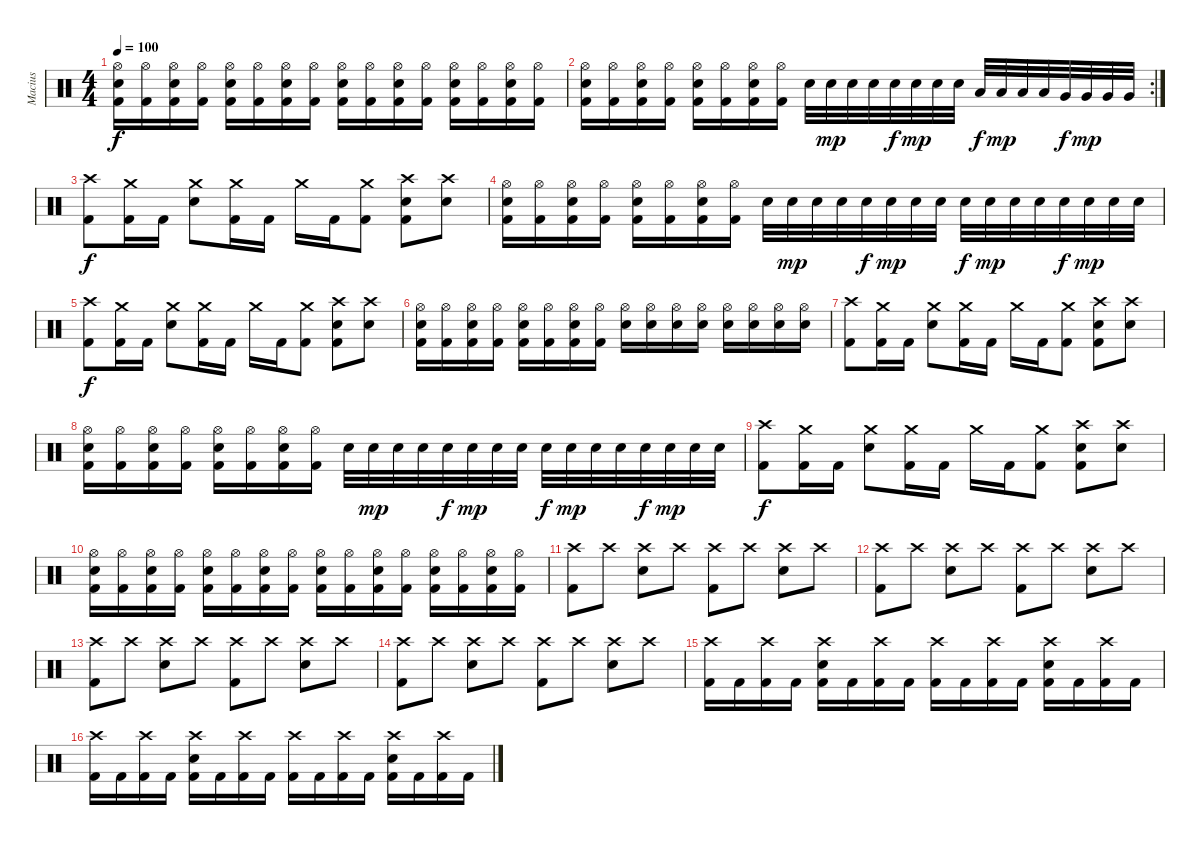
\track ("Macius" "Macius") {instrument percussion}
\staff {score}
\articulation defaults
\ts (4 4)
\tempo 100
\clef neutral
\ks c
("Hi-Hat (open)" "Electric Snare (hit)" "Kick (hit) 2").16{dy f} ("Hi-Hat (open)" "Kick (hit) 2").16 ("Hi-Hat (open)" "Electric Snare (hit)" "Kick (hit) 2").16 ("Hi-Hat (open)" "Kick (hit) 2").16 ("Hi-Hat (open)" "Electric Snare (hit)" "Kick (hit) 2").16 ("Hi-Hat (open)" "Kick (hit) 2").16 ("Hi-Hat (open)" "Electric Snare (hit)" "Kick (hit) 2").16 ("Hi-Hat (open)" "Kick (hit) 2").16 ("Hi-Hat (open)" "Electric Snare (hit)" "Kick (hit) 2").16 ("Hi-Hat (open)" "Kick (hit) 2").16 ("Hi-Hat (open)" "Electric Snare (hit)" "Kick (hit) 2").16 ("Hi-Hat (open)" "Kick (hit) 2").16 ("Hi-Hat (open)" "Electric Snare (hit)" "Kick (hit) 2").16 ("Hi-Hat (open)" "Kick (hit) 2").16 ("Hi-Hat (open)" "Electric Snare (hit)" "Kick (hit) 2").16 ("Hi-Hat (open)" "Kick (hit) 2").16 |
\rc 2
("Hi-Hat (open)" "Electric Snare (hit)" "Kick (hit) 2").16 ("Hi-Hat (open)" "Kick (hit) 2").16 ("Hi-Hat (open)" "Electric Snare (hit)" "Kick (hit) 2").16 ("Hi-Hat (open)" "Kick (hit) 2").16 ("Hi-Hat (open)" "Electric Snare (hit)" "Kick (hit) 2").16 ("Hi-Hat (open)" "Kick (hit) 2").16 ("Hi-Hat (open)" "Electric Snare (hit)" "Kick (hit) 2").16 ("Hi-Hat (open)" "Kick (hit) 2").16 "Electric Snare (hit)".32 "Electric Snare (hit)".32{dy mp} "Electric Snare (hit)".32 "Electric Snare (hit)".32 "Electric Snare (hit)".32{dy f} "Electric Snare (hit)".32{dy mp} "Electric Snare (hit)".32 "Electric Snare (hit)".32 "Low Tom (hit)".32{dy f} "Low Tom (hit)".32{dy mp} "Low Tom (hit)".32 "Low Tom (hit)".32 "Very Low Tom (hit)".32{dy f} "Very Low Tom (hit)".32{dy mp} "Very Low Tom (hit)".32 "Very Low Tom (hit)".32 |
("Crash high (hit)" "Kick (hit) 2").8{dy f} ("Crash medium (hit)" "Kick (hit) 2").16 "Kick (hit) 2".16 ("Crash medium (hit)" "Electric Snare (hit)").8 ("Crash medium (hit)" "Kick (hit) 2").16 "Kick (hit) 2".16 "Crash medium (hit)".16 "Kick (hit) 2".16 ("Crash medium (hit)" "Kick (hit) 2").8 ("Crash high (hit)" "Electric Snare (hit)" "Kick (hit) 2").8 ("Crash high (hit)" "Electric Snare (hit)").8 |
("Hi-Hat (open)" "Electric Snare (hit)" "Kick (hit) 2").16 ("Hi-Hat (open)" "Kick (hit) 2").16 ("Hi-Hat (open)" "Electric Snare (hit)" "Kick (hit) 2").16 ("Hi-Hat (open)" "Kick (hit) 2").16 ("Hi-Hat (open)" "Electric Snare (hit)" "Kick (hit) 2").16 ("Hi-Hat (open)" "Kick (hit) 2").16 ("Hi-Hat (open)" "Electric Snare (hit)" "Kick (hit) 2").16 ("Hi-Hat (open)" "Kick (hit) 2").16 "Electric Snare (hit)".32 "Electric Snare (hit)".32{dy mp} "Electric Snare (hit)".32 "Electric Snare (hit)".32 "Electric Snare (hit)".32{dy f} "Electric Snare (hit)".32{dy mp} "Electric Snare (hit)".32 "Electric Snare (hit)".32 "Electric Snare (hit)".32{dy f} "Electric Snare (hit)".32{dy mp} "Electric Snare (hit)".32 "Electric Snare (hit)".32 "Electric Snare (hit)".32{dy f} "Electric Snare (hit)".32{dy mp} "Electric Snare (hit)".32 "Electric Snare (hit)".32 |
("Crash high (hit)" "Kick (hit) 2").8{dy f} ("Crash medium (hit)" "Kick (hit) 2").16 "Kick (hit) 2".16 ("Crash medium (hit)" "Electric Snare (hit)").8 ("Crash medium (hit)" "Kick (hit) 2").16 "Kick (hit) 2".16 "Crash medium (hit)".16 "Kick (hit) 2".16 ("Crash medium (hit)" "Kick (hit) 2").8 ("Crash high (hit)" "Electric Snare (hit)" "Kick (hit) 2").8 ("Crash high (hit)" "Electric Snare (hit)").8 |
("Hi-Hat (open)" "Electric Snare (hit)" "Kick (hit) 2").16 ("Hi-Hat (open)" "Kick (hit) 2").16 ("Hi-Hat (open)" "Electric Snare (hit)" "Kick (hit) 2").16 ("Hi-Hat (open)" "Kick (hit) 2").16 ("Hi-Hat (open)" "Electric Snare (hit)" "Kick (hit) 2").16 ("Hi-Hat (open)" "Kick (hit) 2").16 ("Hi-Hat (open)" "Electric Snare (hit)" "Kick (hit) 2").16 ("Hi-Hat (open)" "Kick (hit) 2").16 ("Hi-Hat (open)" "Electric Snare (hit)").16 ("Hi-Hat (open)" "Electric Snare (hit)").16 ("Hi-Hat (open)" "Electric Snare (hit)").16 ("Hi-Hat (open)" "Electric Snare (hit)").16 ("Hi-Hat (open)" "Electric Snare (hit)").16 ("Hi-Hat (open)" "Electric Snare (hit)").16 ("Hi-Hat (open)" "Electric Snare (hit)").16 ("Hi-Hat (open)" "Electric Snare (hit)").16 |
("Crash high (hit)" "Kick (hit) 2").8 ("Crash medium (hit)" "Kick (hit) 2").16 "Kick (hit) 2".16 ("Crash medium (hit)" "Electric Snare (hit)").8 ("Crash medium (hit)" "Kick (hit) 2").16 "Kick (hit) 2".16 "Crash medium (hit)".16 "Kick (hit) 2".16 ("Crash medium (hit)" "Kick (hit) 2").8 ("Crash high (hit)" "Electric Snare (hit)" "Kick (hit) 2").8 ("Crash high (hit)" "Electric Snare (hit)").8 |
("Hi-Hat (open)" "Electric Snare (hit)" "Kick (hit) 2").16 ("Hi-Hat (open)" "Kick (hit) 2").16 ("Hi-Hat (open)" "Electric Snare (hit)" "Kick (hit) 2").16 ("Hi-Hat (open)" "Kick (hit) 2").16 ("Hi-Hat (open)" "Electric Snare (hit)" "Kick (hit) 2").16 ("Hi-Hat (open)" "Kick (hit) 2").16 ("Hi-Hat (open)" "Electric Snare (hit)" "Kick (hit) 2").16 ("Hi-Hat (open)" "Kick (hit) 2").16 "Electric Snare (hit)".32 "Electric Snare (hit)".32{dy mp} "Electric Snare (hit)".32 "Electric Snare (hit)".32 "Electric Snare (hit)".32{dy f} "Electric Snare (hit)".32{dy mp} "Electric Snare (hit)".32 "Electric Snare (hit)".32 "Electric Snare (hit)".32{dy f} "Electric Snare (hit)".32{dy mp} "Electric Snare (hit)".32 "Electric Snare (hit)".32 "Electric Snare (hit)".32{dy f} "Electric Snare (hit)".32{dy mp} "Electric Snare (hit)".32 "Electric Snare (hit)".32 |
("Crash high (hit)" "Kick (hit) 2").8{dy f} ("Crash medium (hit)" "Kick (hit) 2").16 "Kick (hit) 2".16 ("Crash medium (hit)" "Electric Snare (hit)").8 ("Crash medium (hit)" "Kick (hit) 2").16 "Kick (hit) 2".16 "Crash medium (hit)".16 "Kick (hit) 2".16 ("Crash medium (hit)" "Kick (hit) 2").8 ("Crash high (hit)" "Electric Snare (hit)" "Kick (hit) 2").8 ("Crash high (hit)" "Electric Snare (hit)").8 |
("Hi-Hat (open)" "Electric Snare (hit)" "Kick (hit) 2").16 ("Hi-Hat (open)" "Kick (hit) 2").16 ("Hi-Hat (open)" "Electric Snare (hit)" "Kick (hit) 2").16 ("Hi-Hat (open)" "Kick (hit) 2").16 ("Hi-Hat (open)" "Electric Snare (hit)" "Kick (hit) 2").16 ("Hi-Hat (open)" "Kick (hit) 2").16 ("Hi-Hat (open)" "Electric Snare (hit)" "Kick (hit) 2").16 ("Hi-Hat (open)" "Kick (hit) 2").16 ("Hi-Hat (open)" "Electric Snare (hit)" "Kick (hit) 2").16 ("Hi-Hat (open)" "Kick (hit) 2").16 ("Hi-Hat (open)" "Electric Snare (hit)" "Kick (hit) 2").16 ("Hi-Hat (open)" "Kick (hit) 2").16 ("Hi-Hat (open)" "Electric Snare (hit)" "Kick (hit) 2").16 ("Hi-Hat (open)" "Kick (hit) 2").16 ("Hi-Hat (open)" "Electric Snare (hit)" "Kick (hit) 2").16 ("Hi-Hat (open)" "Kick (hit) 2").16 |
("Crash high (hit)" "Kick (hit) 2").8 "Crash high (hit)".8 ("Crash high (hit)" "Electric Snare (hit)").8 "Crash high (hit)".8 ("Crash high (hit)" "Kick (hit) 2").8 "Crash high (hit)".8 ("Crash high (hit)" "Electric Snare (hit)").8 "Crash high (hit)".8 |
("Crash high (hit)" "Kick (hit) 2").8 "Crash high (hit)".8 ("Crash high (hit)" "Electric Snare (hit)").8 "Crash high (hit)".8 ("Crash high (hit)" "Kick (hit) 2").8 "Crash high (hit)".8 ("Crash high (hit)" "Electric Snare (hit)").8 "Crash high (hit)".8 |
("Crash high (hit)" "Kick (hit) 2").8 "Crash high (hit)".8 ("Crash high (hit)" "Electric Snare (hit)").8 "Crash high (hit)".8 ("Crash high (hit)" "Kick (hit) 2").8 "Crash high (hit)".8 ("Crash high (hit)" "Electric Snare (hit)").8 "Crash high (hit)".8 |
("Crash high (hit)" "Kick (hit) 2").8 "Crash high (hit)".8 ("Crash high (hit)" "Electric Snare (hit)").8 "Crash high (hit)".8 ("Crash high (hit)" "Kick (hit) 2").8 "Crash high (hit)".8 ("Crash high (hit)" "Electric Snare (hit)").8 "Crash high (hit)".8 |
("Crash high (hit)" "Kick (hit) 2").16 "Kick (hit) 2".16 ("Crash high (hit)" "Kick (hit) 2").16 "Kick (hit) 2".16 ("Crash high (hit)" "Electric Snare (hit)" "Kick (hit) 2").16 "Kick (hit) 2".16 ("Crash high (hit)" "Kick (hit) 2").16 "Kick (hit) 2".16 ("Crash high (hit)" "Kick (hit) 2").16 "Kick (hit) 2".16 ("Crash high (hit)" "Kick (hit) 2").16 "Kick (hit) 2".16 ("Crash high (hit)" "Electric Snare (hit)" "Kick (hit) 2").16 "Kick (hit) 2".16 ("Crash high (hit)" "Kick (hit) 2").16 "Kick (hit) 2".16 |
("Crash high (hit)" "Kick (hit) 2").16 "Kick (hit) 2".16 ("Crash high (hit)" "Kick (hit) 2").16 "Kick (hit) 2".16 ("Crash high (hit)" "Electric Snare (hit)" "Kick (hit) 2").16 "Kick (hit) 2".16 ("Crash high (hit)" "Kick (hit) 2").16 "Kick (hit) 2".16 ("Crash high (hit)" "Kick (hit) 2").16 "Kick (hit) 2".16 ("Crash high (hit)" "Kick (hit) 2").16 "Kick (hit) 2".16 ("Crash high (hit)" "Electric Snare (hit)" "Kick (hit) 2").16 "Kick (hit) 2".16 ("Crash high (hit)" "Kick (hit) 2").16 "Kick (hit) 2".16
